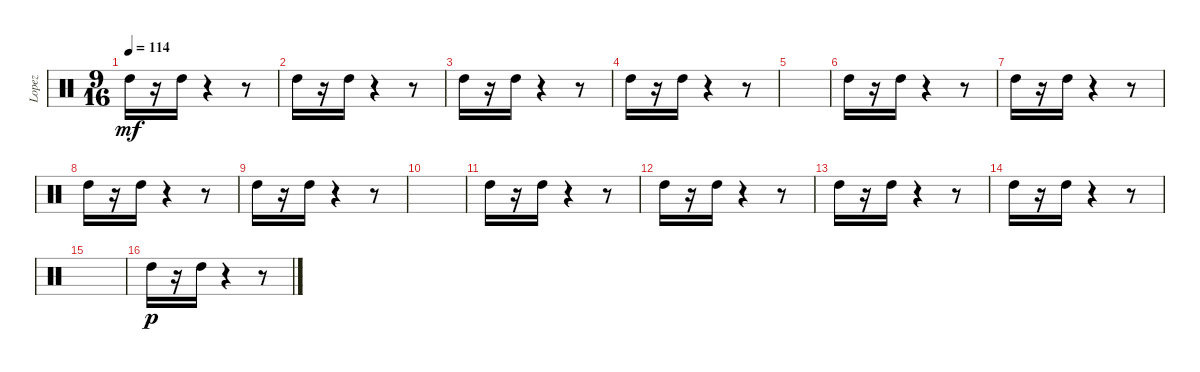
\track ("Lopez" "Lopez") {instrument percussion}
\staff {score}
\articulation defaults
\ts (9 16)
\tempo 114
\clef neutral
\ks c "High Tom (hit)".16{dy mf}
r.16 "High Tom (hit)".16 r.4 r.8 |
"High Tom (hit)".16 r.16 "High Tom (hit)".16 r.4 r.8 |
"High Tom (hit)".16 r.16 "High Tom (hit)".16 r.4 r.8 |
"High Tom (hit)".16 r.16 "High Tom (hit)".16 r.4 r.8 |
|
"High Tom (hit)".16 r.16 "High Tom (hit)".16 r.4 r.8 |
"High Tom (hit)".16 r.16 "High Tom (hit)".16 r.4 r.8 |
"High Tom (hit)".16 r.16 "High Tom (hit)".16 r.4 r.8 |
"High Tom (hit)".16 r.16 "High Tom (hit)".16 r.4 r.8 |
|
"High Tom (hit)".16 r.16 "High Tom (hit)".16 r.4 r.8 |
"High Tom (hit)".16 r.16 "High Tom (hit)".16 r.4 r.8 |
"High Tom (hit)".16 r.16 "High Tom (hit)".16 r.4 r.8 |
"High Tom (hit)".16 r.16 "High Tom (hit)".16 r.4 r.8 |
|
"High Tom (hit)".16{dy p} r.16 "High Tom (hit)".16 r.4 r.8
